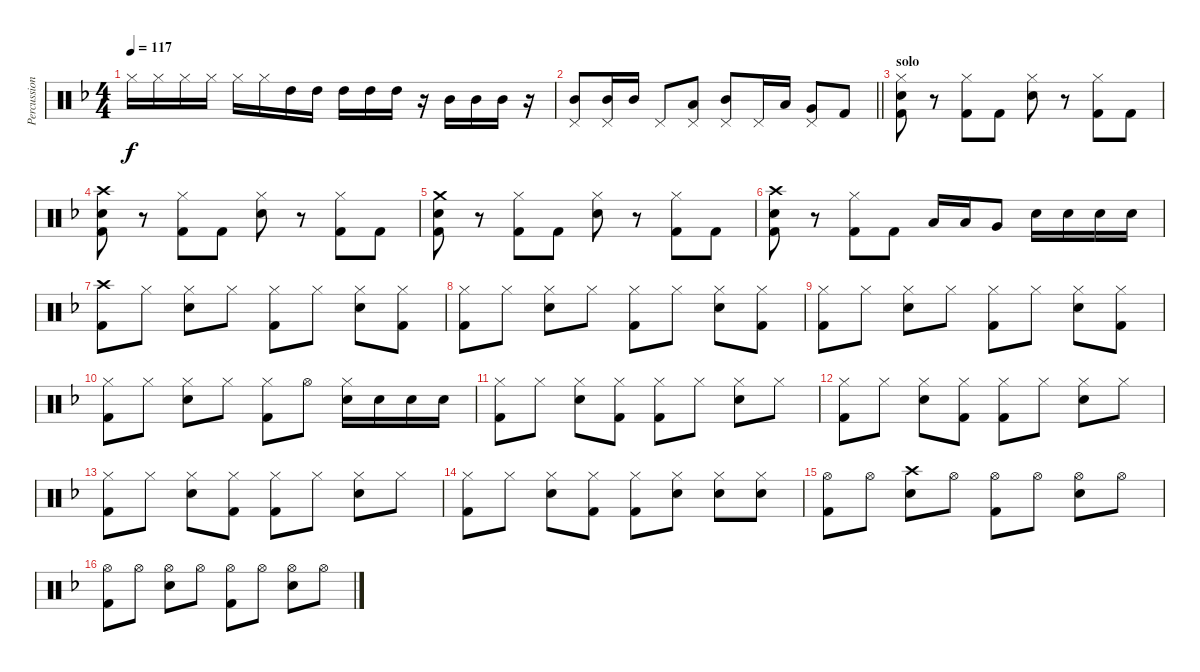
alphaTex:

\track ("Percussion" "Percussion") {instrument percussion}
\staff {score}
\articulation defaults
\ts (4 4)
\tempo 117
\clef neutral
\ks f "Hi-Hat (closed)".16{dy f} "Hi-Hat (closed)".16 "Hi-Hat (closed)".16 "Hi-Hat (closed)".16 "Hi-Hat (closed)".16 "Hi-Hat (closed)".16 "High Tom (hit)".16 "High Tom (hit)".16 "High Tom (hit)".16 "High Tom (hit)".16 "High Tom (hit)".16
r.16 "Mid Tom (hit)".16 "Mid Tom (hit)".16 "Mid Tom (hit)".16 r.16 |
\barLineRight lightlight
("Mid Tom (hit)" "Pedal Hi-Hat (hit)").8 ("Mid Tom (hit)" "Pedal Hi-Hat (hit)").16 "Mid Tom (hit)".16 "Pedal Hi-Hat (hit)".8 ("Low Tom (hit)" "Pedal Hi-Hat (hit)").8 ("Mid Tom (hit)" "Pedal Hi-Hat (hit)").8 "Pedal Hi-Hat (hit)".16 "Low Tom (hit)".16 ("Very Low Tom (hit)" "Pedal Hi-Hat (hit)").8 "Kick (hit) 2".8 |
\section ("" "solo")
("Hi-Hat (closed)" "Electric Snare (hit)" "Kick (hit) 2").8 r.8 ("Hi-Hat (closed)" "Kick (hit) 2").8 "Kick (hit) 2".8 ("Hi-Hat (closed)" "Electric Snare (hit)").8 r.8 ("Hi-Hat (closed)" "Kick (hit) 2").8 "Kick (hit) 2".8 |
("Crash high (hit)" "Electric Snare (hit)" "Kick (hit) 2").8 r.8 ("Hi-Hat (closed)" "Kick (hit) 2").8 "Kick (hit) 2".8 ("Hi-Hat (closed)" "Electric Snare (hit)").8 r.8 ("Hi-Hat (closed)" "Kick (hit) 2").8 "Kick (hit) 2".8 |
("Crash medium (hit)" "Electric Snare (hit)" "Kick (hit) 2").8 r.8 ("Hi-Hat (closed)" "Kick (hit) 2").8 "Kick (hit) 2".8 ("Hi-Hat (closed)" "Electric Snare (hit)").8 r.8 ("Hi-Hat (closed)" "Kick (hit) 2").8 "Kick (hit) 2".8 |
("Crash high (hit)" "Electric Snare (hit)" "Kick (hit) 2").8 r.8 ("Hi-Hat (closed)" "Kick (hit) 2").8 "Kick (hit) 2".8 "Low Tom (hit)".16 "Low Tom (hit)".16 "Very Low Tom (hit)".8 "Electric Snare (hit)".16 "Electric Snare (hit)".16 "Electric Snare (hit)".16 "Electric Snare (hit)".16 |
("Crash high (hit)" "Kick (hit) 2").8 "Hi-Hat (closed)".8 ("Hi-Hat (closed)" "Electric Snare (hit)").8 "Hi-Hat (closed)".8 ("Hi-Hat (closed)" "Kick (hit) 2").8 "Hi-Hat (closed)".8 ("Hi-Hat (closed)" "Electric Snare (hit)").8 ("Hi-Hat (closed)" "Kick (hit) 2").8 |
("Hi-Hat (closed)" "Kick (hit) 2").8 "Hi-Hat (closed)".8 ("Hi-Hat (closed)" "Electric Snare (hit)").8 "Hi-Hat (closed)".8 ("Hi-Hat (closed)" "Kick (hit) 2").8 "Hi-Hat (closed)".8 ("Hi-Hat (closed)" "Electric Snare (hit)").8 ("Hi-Hat (closed)" "Kick (hit) 2").8 |
("Hi-Hat (closed)" "Kick (hit) 2").8 "Hi-Hat (closed)".8 ("Hi-Hat (closed)" "Electric Snare (hit)").8 "Hi-Hat (closed)".8 ("Hi-Hat (closed)" "Kick (hit) 2").8 "Hi-Hat (closed)".8 ("Hi-Hat (closed)" "Electric Snare (hit)").8 ("Hi-Hat (closed)" "Kick (hit) 2").8 |
("Hi-Hat (closed)" "Kick (hit) 2").8 "Hi-Hat (closed)".8 ("Hi-Hat (closed)" "Electric Snare (hit)").8 "Hi-Hat (closed)".8 ("Hi-Hat (closed)" "Kick (hit) 2").8 "Hi-Hat (open)".8 ("Hi-Hat (closed)" "Electric Snare (hit)").16 "Electric Snare (hit)".16 "Electric Snare (hit)".16 "Electric Snare (hit)".16 |
("Hi-Hat (closed)" "Kick (hit) 2").8 "Hi-Hat (closed)".8 ("Hi-Hat (closed)" "Electric Snare (hit)").8 ("Hi-Hat (closed)" "Kick (hit) 2").8 ("Hi-Hat (closed)" "Kick (hit) 2").8 "Hi-Hat (closed)".8 ("Hi-Hat (closed)" "Electric Snare (hit)").8 "Hi-Hat (closed)".8 |
("Hi-Hat (closed)" "Kick (hit) 2").8 "Hi-Hat (closed)".8 ("Hi-Hat (closed)" "Electric Snare (hit)").8 ("Hi-Hat (closed)" "Kick (hit) 2").8 ("Hi-Hat (closed)" "Kick (hit) 2").8 "Hi-Hat (closed)".8 ("Hi-Hat (closed)" "Electric Snare (hit)").8 "Hi-Hat (closed)".8 |
("Hi-Hat (closed)" "Kick (hit) 2").8 "Hi-Hat (closed)".8 ("Hi-Hat (closed)" "Electric Snare (hit)").8 ("Hi-Hat (closed)" "Kick (hit) 2").8 ("Hi-Hat (closed)" "Kick (hit) 2").8 "Hi-Hat (closed)".8 ("Hi-Hat (closed)" "Electric Snare (hit)").8 "Hi-Hat (closed)".8 |
("Hi-Hat (closed)" "Kick (hit) 2").8 "Hi-Hat (closed)".8 ("Hi-Hat (closed)" "Electric Snare (hit)").8 ("Hi-Hat (closed)" "Kick (hit) 2").8 ("Hi-Hat (closed)" "Kick (hit) 2").8 ("Hi-Hat (closed)" "Electric Snare (hit)").8 ("Hi-Hat (closed)" "Electric Snare (hit)").8 ("Hi-Hat (closed)" "Electric Snare (hit)").8 |
("Hi-Hat (open)" "Kick (hit) 2").8 "Hi-Hat (open)".8 ("Crash high (hit)" "Electric Snare (hit)").8 "Hi-Hat (open)".8 ("Hi-Hat (open)" "Kick (hit) 2").8 "Hi-Hat (open)".8 ("Hi-Hat (open)" "Electric Snare (hit)").8 "Hi-Hat (open)".8 |
("Hi-Hat (open)" "Kick (hit) 2").8 "Hi-Hat (open)".8 ("Hi-Hat (open)" "Electric Snare (hit)").8 "Hi-Hat (open)".8 ("Hi-Hat (open)" "Kick (hit) 2").8 "Hi-Hat (open)".8 ("Hi-Hat (open)" "Electric Snare (hit)").8 "Hi-Hat (open)".8
